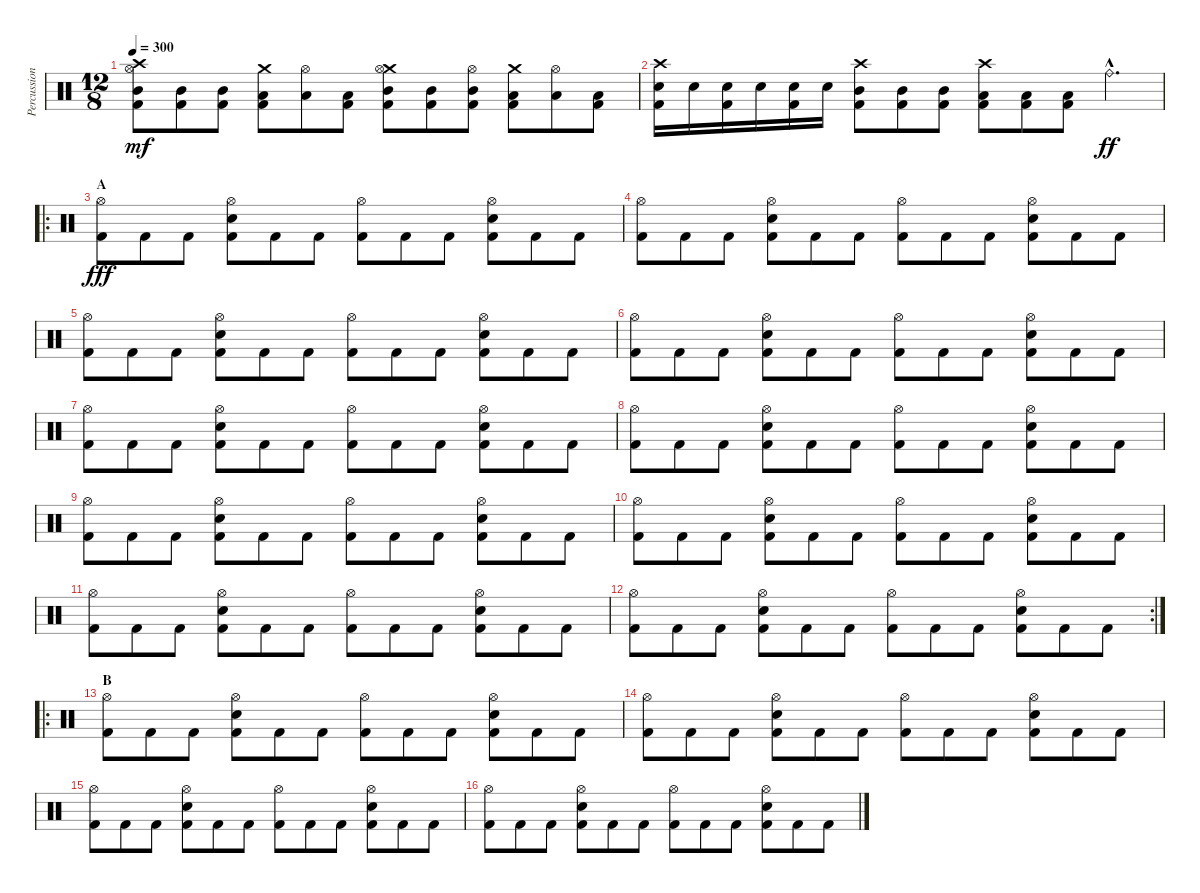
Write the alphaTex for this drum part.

\track ("Percussion" "Percussion") {instrument percussion}
\staff {score}
\articulation defaults
\ts (12 8)
\tempo 300
\clef neutral
\ks c
("Crash high (hit)" "Hi-Hat (open)" "Mid Tom (hit)" "Kick (hit) 2").8{dy mf} ("Mid Tom (hit)" "Kick (hit) 2").8 ("Mid Tom (hit)" "Kick (hit) 2").8 ("Crash medium (hit)" "Low Tom (hit)" "Kick (hit) 2").8 ("Hi-Hat (open)" "Low Tom (hit)").8 ("Low Tom (hit)" "Kick (hit) 2").8 ("Crash medium (hit)" "Hi-Hat (open)" "Mid Tom (hit)" "Kick (hit) 2").8 ("Mid Tom (hit)" "Kick (hit) 2").8 ("Hi-Hat (open)" "Mid Tom (hit)" "Kick (hit) 2").8 ("Crash medium (hit)" "Low Tom (hit)" "Kick (hit) 2").8 ("Hi-Hat (open)" "Low Tom (hit)").8 ("Low Tom (hit)" "Kick (hit) 2").8 |
("Crash high (hit)" "Snare (hit) 2" "Kick (hit) 2").16 "Snare (hit) 2".16 ("Snare (hit) 2" "Kick (hit) 2").16 "Snare (hit) 2".16 ("Snare (hit) 2" "Kick (hit) 2").16 "Snare (hit) 2".16 ("Crash high (hit)" "Mid Tom (hit)" "Kick (hit) 2").8 ("Mid Tom (hit)" "Kick (hit) 2").8 ("Mid Tom (hit)" "Kick (hit) 2").8 ("Crash high (hit)" "Low Tom (hit)" "Kick (hit) 2").8 ("Low Tom (hit)" "Kick (hit) 2").8 ("Low Tom (hit)" "Kick (hit) 2").8 "Ride (bell)"{hac}.4{d dy ff} |
\ro
\section ("" "A")
("Hi-Hat (open)" "Kick (hit) 2").8{dy fff} "Kick (hit) 2".8 "Kick (hit) 2".8 ("Hi-Hat (open)" "Snare (hit) 2" "Kick (hit) 2").8 "Kick (hit) 2".8 "Kick (hit) 2".8 ("Hi-Hat (open)" "Kick (hit) 2").8 "Kick (hit) 2".8 "Kick (hit) 2".8 ("Hi-Hat (open)" "Snare (hit) 2" "Kick (hit) 2").8 "Kick (hit) 2".8 "Kick (hit) 2".8 |
("Hi-Hat (open)" "Kick (hit) 2").8 "Kick (hit) 2".8 "Kick (hit) 2".8 ("Hi-Hat (open)" "Snare (hit) 2" "Kick (hit) 2").8 "Kick (hit) 2".8 "Kick (hit) 2".8 ("Hi-Hat (open)" "Kick (hit) 2").8 "Kick (hit) 2".8 "Kick (hit) 2".8 ("Hi-Hat (open)" "Snare (hit) 2" "Kick (hit) 2").8 "Kick (hit) 2".8 "Kick (hit) 2".8 |
("Hi-Hat (open)" "Kick (hit) 2").8 "Kick (hit) 2".8 "Kick (hit) 2".8 ("Hi-Hat (open)" "Snare (hit) 2" "Kick (hit) 2").8 "Kick (hit) 2".8 "Kick (hit) 2".8 ("Hi-Hat (open)" "Kick (hit) 2").8 "Kick (hit) 2".8 "Kick (hit) 2".8 ("Hi-Hat (open)" "Snare (hit) 2" "Kick (hit) 2").8 "Kick (hit) 2".8 "Kick (hit) 2".8 |
("Hi-Hat (open)" "Kick (hit) 2").8 "Kick (hit) 2".8 "Kick (hit) 2".8 ("Hi-Hat (open)" "Snare (hit) 2" "Kick (hit) 2").8 "Kick (hit) 2".8 "Kick (hit) 2".8 ("Hi-Hat (open)" "Kick (hit) 2").8 "Kick (hit) 2".8 "Kick (hit) 2".8 ("Hi-Hat (open)" "Snare (hit) 2" "Kick (hit) 2").8 "Kick (hit) 2".8 "Kick (hit) 2".8 |
("Hi-Hat (open)" "Kick (hit) 2").8 "Kick (hit) 2".8 "Kick (hit) 2".8 ("Hi-Hat (open)" "Snare (hit) 2" "Kick (hit) 2").8 "Kick (hit) 2".8 "Kick (hit) 2".8 ("Hi-Hat (open)" "Kick (hit) 2").8 "Kick (hit) 2".8 "Kick (hit) 2".8 ("Hi-Hat (open)" "Snare (hit) 2" "Kick (hit) 2").8 "Kick (hit) 2".8 "Kick (hit) 2".8 |
("Hi-Hat (open)" "Kick (hit) 2").8 "Kick (hit) 2".8 "Kick (hit) 2".8 ("Hi-Hat (open)" "Snare (hit) 2" "Kick (hit) 2").8 "Kick (hit) 2".8 "Kick (hit) 2".8 ("Hi-Hat (open)" "Kick (hit) 2").8 "Kick (hit) 2".8 "Kick (hit) 2".8 ("Hi-Hat (open)" "Snare (hit) 2" "Kick (hit) 2").8 "Kick (hit) 2".8 "Kick (hit) 2".8 |
("Hi-Hat (open)" "Kick (hit) 2").8 "Kick (hit) 2".8 "Kick (hit) 2".8 ("Hi-Hat (open)" "Snare (hit) 2" "Kick (hit) 2").8 "Kick (hit) 2".8 "Kick (hit) 2".8 ("Hi-Hat (open)" "Kick (hit) 2").8 "Kick (hit) 2".8 "Kick (hit) 2".8 ("Hi-Hat (open)" "Snare (hit) 2" "Kick (hit) 2").8 "Kick (hit) 2".8 "Kick (hit) 2".8 |
("Hi-Hat (open)" "Kick (hit) 2").8 "Kick (hit) 2".8 "Kick (hit) 2".8 ("Hi-Hat (open)" "Snare (hit) 2" "Kick (hit) 2").8 "Kick (hit) 2".8 "Kick (hit) 2".8 ("Hi-Hat (open)" "Kick (hit) 2").8 "Kick (hit) 2".8 "Kick (hit) 2".8 ("Hi-Hat (open)" "Snare (hit) 2" "Kick (hit) 2").8 "Kick (hit) 2".8 "Kick (hit) 2".8 |
("Hi-Hat (open)" "Kick (hit) 2").8 "Kick (hit) 2".8 "Kick (hit) 2".8 ("Hi-Hat (open)" "Snare (hit) 2" "Kick (hit) 2").8 "Kick (hit) 2".8 "Kick (hit) 2".8 ("Hi-Hat (open)" "Kick (hit) 2").8 "Kick (hit) 2".8 "Kick (hit) 2".8 ("Hi-Hat (open)" "Snare (hit) 2" "Kick (hit) 2").8 "Kick (hit) 2".8 "Kick (hit) 2".8 |
\rc 2
("Hi-Hat (open)" "Kick (hit) 2").8 "Kick (hit) 2".8 "Kick (hit) 2".8 ("Hi-Hat (open)" "Snare (hit) 2" "Kick (hit) 2").8 "Kick (hit) 2".8 "Kick (hit) 2".8 ("Hi-Hat (open)" "Kick (hit) 2").8 "Kick (hit) 2".8 "Kick (hit) 2".8 ("Hi-Hat (open)" "Snare (hit) 2" "Kick (hit) 2").8 "Kick (hit) 2".8 "Kick (hit) 2".8 |
\ro
\section ("" "B")
("Hi-Hat (open)" "Kick (hit) 2").8 "Kick (hit) 2".8 "Kick (hit) 2".8 ("Hi-Hat (open)" "Snare (hit) 2" "Kick (hit) 2").8 "Kick (hit) 2".8 "Kick (hit) 2".8 ("Hi-Hat (open)" "Kick (hit) 2").8 "Kick (hit) 2".8 "Kick (hit) 2".8 ("Hi-Hat (open)" "Snare (hit) 2" "Kick (hit) 2").8 "Kick (hit) 2".8 "Kick (hit) 2".8 |
("Hi-Hat (open)" "Kick (hit) 2").8 "Kick (hit) 2".8 "Kick (hit) 2".8 ("Hi-Hat (open)" "Snare (hit) 2" "Kick (hit) 2").8 "Kick (hit) 2".8 "Kick (hit) 2".8 ("Hi-Hat (open)" "Kick (hit) 2").8 "Kick (hit) 2".8 "Kick (hit) 2".8 ("Hi-Hat (open)" "Snare (hit) 2" "Kick (hit) 2").8 "Kick (hit) 2".8 "Kick (hit) 2".8 |
("Hi-Hat (open)" "Kick (hit) 2").8 "Kick (hit) 2".8 "Kick (hit) 2".8 ("Hi-Hat (open)" "Snare (hit) 2" "Kick (hit) 2").8 "Kick (hit) 2".8 "Kick (hit) 2".8 ("Hi-Hat (open)" "Kick (hit) 2").8 "Kick (hit) 2".8 "Kick (hit) 2".8 ("Hi-Hat (open)" "Snare (hit) 2" "Kick (hit) 2").8 "Kick (hit) 2".8 "Kick (hit) 2".8 |
("Hi-Hat (open)" "Kick (hit) 2").8 "Kick (hit) 2".8 "Kick (hit) 2".8 ("Hi-Hat (open)" "Snare (hit) 2" "Kick (hit) 2").8 "Kick (hit) 2".8 "Kick (hit) 2".8 ("Hi-Hat (open)" "Kick (hit) 2").8 "Kick (hit) 2".8 "Kick (hit) 2".8 ("Hi-Hat (open)" "Snare (hit) 2" "Kick (hit) 2").8 "Kick (hit) 2".8 "Kick (hit) 2".8
